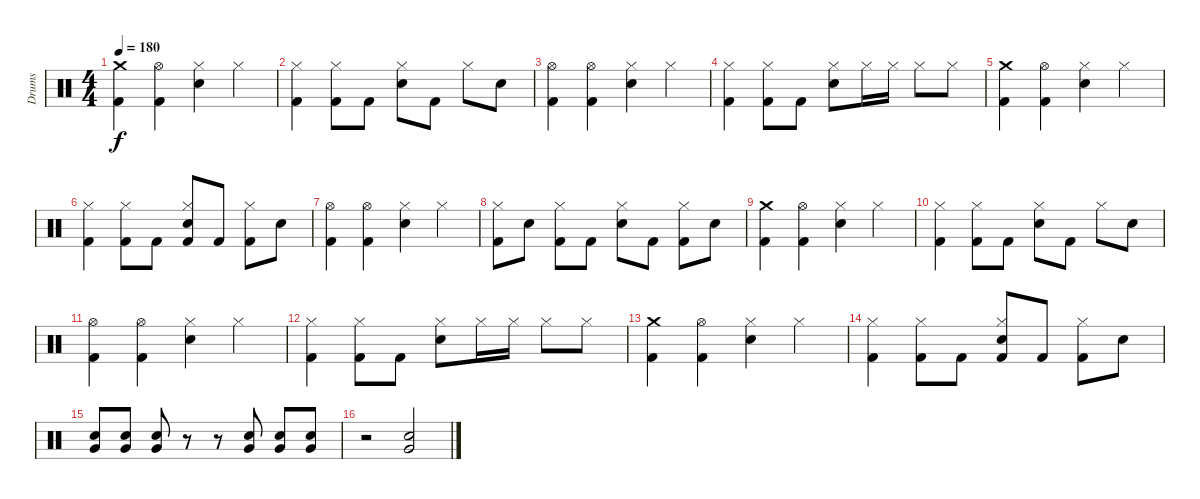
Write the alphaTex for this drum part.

\track ("Drums" "Drums") {instrument percussion}
\staff {score}
\articulation defaults
\ts (4 4)
\tempo 180
\clef neutral
\ks c
("Crash medium (hit)" "Kick (hit) 2").4{dy f} ("Hi-Hat (open)" "Kick (hit) 2").4 ("Hi-Hat (closed)" "Electric Snare (hit)").4 "Hi-Hat (closed)".4 |
("Hi-Hat (closed)" "Kick (hit) 2").4 ("Hi-Hat (closed)" "Kick (hit) 2").8 "Kick (hit) 2".8 ("Hi-Hat (closed)" "Electric Snare (hit)").8 "Kick (hit) 2".8 "Hi-Hat (closed)".8 "Electric Snare (hit)".8 |
("Hi-Hat (open)" "Kick (hit) 2").4 ("Hi-Hat (open)" "Kick (hit) 2").4 ("Hi-Hat (closed)" "Electric Snare (hit)").4 "Hi-Hat (closed)".4 |
("Hi-Hat (closed)" "Kick (hit) 2").4 ("Hi-Hat (closed)" "Kick (hit) 2").8 "Kick (hit) 2".8 ("Hi-Hat (closed)" "Electric Snare (hit)").8 "Hi-Hat (closed)".16 "Hi-Hat (closed)".16 "Hi-Hat (closed)".8 "Hi-Hat (closed)".8 |
("Crash medium (hit)" "Kick (hit) 2").4 ("Hi-Hat (open)" "Kick (hit) 2").4 ("Hi-Hat (closed)" "Electric Snare (hit)").4 "Hi-Hat (closed)".4 |
("Hi-Hat (closed)" "Kick (hit) 2").4 ("Hi-Hat (closed)" "Kick (hit) 2").8 "Kick (hit) 2".8 ("Hi-Hat (closed)" "Electric Snare (hit)" "Kick (hit) 2").8 "Kick (hit) 2".8 ("Hi-Hat (closed)" "Kick (hit) 2").8 "Electric Snare (hit)".8 |
("Hi-Hat (open)" "Kick (hit) 2").4 ("Hi-Hat (open)" "Kick (hit) 2").4 ("Hi-Hat (closed)" "Electric Snare (hit)").4 "Hi-Hat (closed)".4 |
("Hi-Hat (closed)" "Kick (hit) 2").8 "Electric Snare (hit)".8 ("Hi-Hat (closed)" "Kick (hit) 2").8 "Kick (hit) 2".8 ("Hi-Hat (closed)" "Electric Snare (hit)").8 "Kick (hit) 2".8 ("Hi-Hat (closed)" "Kick (hit) 2").8 "Electric Snare (hit)".8 |
("Crash medium (hit)" "Kick (hit) 2").4 ("Hi-Hat (open)" "Kick (hit) 2").4 ("Hi-Hat (closed)" "Electric Snare (hit)").4 "Hi-Hat (closed)".4 |
("Hi-Hat (closed)" "Kick (hit) 2").4 ("Hi-Hat (closed)" "Kick (hit) 2").8 "Kick (hit) 2".8 ("Hi-Hat (closed)" "Electric Snare (hit)").8 "Kick (hit) 2".8 "Hi-Hat (closed)".8 "Electric Snare (hit)".8 |
("Hi-Hat (open)" "Kick (hit) 2").4 ("Hi-Hat (open)" "Kick (hit) 2").4 ("Hi-Hat (closed)" "Electric Snare (hit)").4 "Hi-Hat (closed)".4 |
("Hi-Hat (closed)" "Kick (hit) 2").4 ("Hi-Hat (closed)" "Kick (hit) 2").8 "Kick (hit) 2".8 ("Hi-Hat (closed)" "Electric Snare (hit)").8 "Hi-Hat (closed)".16 "Hi-Hat (closed)".16 "Hi-Hat (closed)".8 "Hi-Hat (closed)".8 |
("Crash medium (hit)" "Kick (hit) 2").4 ("Hi-Hat (open)" "Kick (hit) 2").4 ("Hi-Hat (closed)" "Electric Snare (hit)").4 "Hi-Hat (closed)".4 |
("Hi-Hat (closed)" "Kick (hit) 2").4 ("Hi-Hat (closed)" "Kick (hit) 2").8 "Kick (hit) 2".8 ("Hi-Hat (closed)" "Electric Snare (hit)" "Kick (hit) 2").8 "Kick (hit) 2".8 ("Hi-Hat (closed)" "Kick (hit) 2").8 "Electric Snare (hit)".8 |
("Very Low Tom (hit)" "Electric Snare (hit)").8 ("Very Low Tom (hit)" "Electric Snare (hit)").8 ("Very Low Tom (hit)" "Electric Snare (hit)").8 r.8 r.8 ("Very Low Tom (hit)" "Electric Snare (hit)").8 ("Very Low Tom (hit)" "Electric Snare (hit)").8 ("Very Low Tom (hit)" "Electric Snare (hit)").8 |
r.2 ("Very Low Tom (hit)" "Electric Snare (hit)").2
